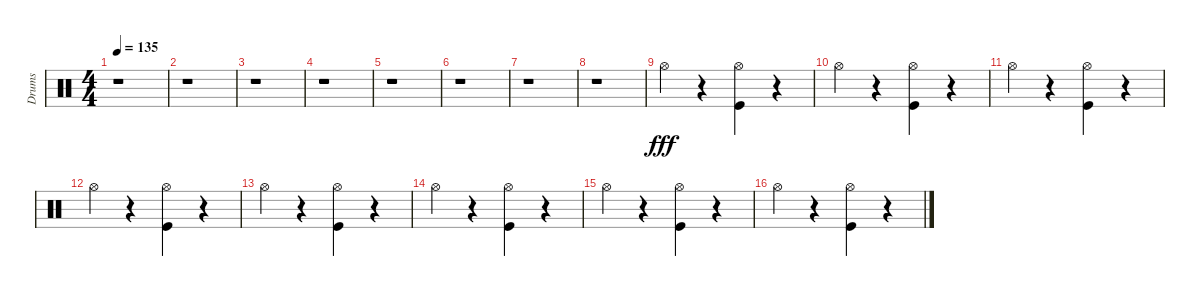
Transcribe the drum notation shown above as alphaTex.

\track ("Drums" "Drums") {instrument percussion}
\staff {score}
\articulation defaults
\ts (4 4)
\tempo 135
\clef neutral
\ks c
r.1{dy fff} |
r.1 |
r.1 |
r.1 |
r.1 |
r.1 |
r.1 |
r.1 |
"Hi-Hat (open)".4 r.4 ("Kick (hit)" "Hi-Hat (open)").4 r.4 |
"Hi-Hat (open)".4 r.4 ("Kick (hit)" "Hi-Hat (open)").4 r.4 |
"Hi-Hat (open)".4 r.4 ("Kick (hit)" "Hi-Hat (open)").4 r.4 |
"Hi-Hat (open)".4 r.4 ("Kick (hit)" "Hi-Hat (open)").4 r.4 |
"Hi-Hat (open)".4 r.4 ("Kick (hit)" "Hi-Hat (open)").4 r.4 |
"Hi-Hat (open)".4 r.4 ("Kick (hit)" "Hi-Hat (open)").4 r.4 |
"Hi-Hat (open)".4 r.4 ("Kick (hit)" "Hi-Hat (open)").4 r.4 |
"Hi-Hat (open)".4 r.4 ("Kick (hit)" "Hi-Hat (open)").4 r.4
